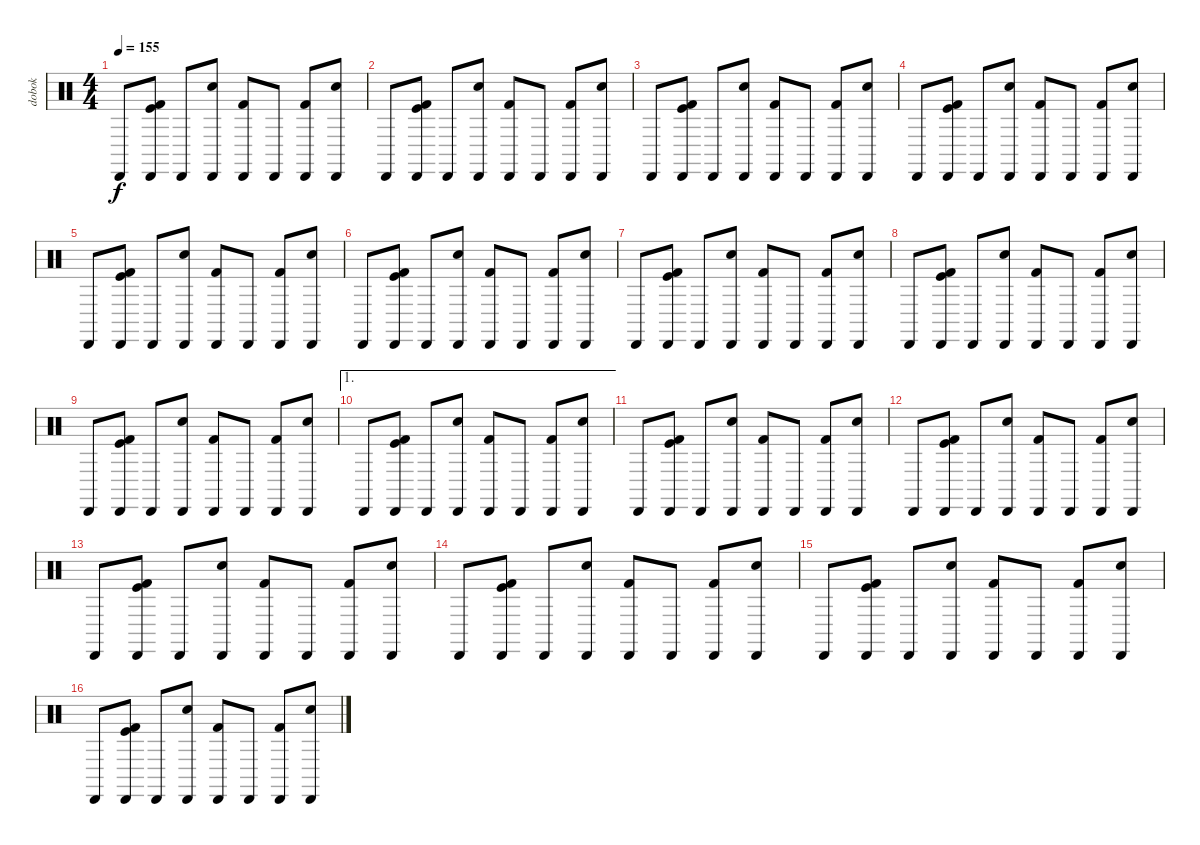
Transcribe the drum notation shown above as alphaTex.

\track ("dobok" "dobok") {instrument percussion}
\staff {score}
\articulation defaults
\ts (4 4)
\tempo 155
\clef neutral
\ks c "Cabasa (hit)".8{dy f}
("Cabasa (hit)" "Kick (hit) 2" "Kick (hit)").8 "Cabasa (hit)".8 ("Cabasa (hit)" "Electric Snare (hit)").8 ("Cabasa (hit)" "Kick (hit) 2").8 "Cabasa (hit)".8 ("Cabasa (hit)" "Kick (hit) 2").8 ("Cabasa (hit)" "Electric Snare (hit)").8 |
"Cabasa (hit)".8 ("Cabasa (hit)" "Kick (hit) 2" "Kick (hit)").8 "Cabasa (hit)".8 ("Cabasa (hit)" "Electric Snare (hit)").8 ("Cabasa (hit)" "Kick (hit) 2").8 "Cabasa (hit)".8 ("Cabasa (hit)" "Kick (hit) 2").8 ("Cabasa (hit)" "Electric Snare (hit)").8 |
"Cabasa (hit)".8 ("Cabasa (hit)" "Kick (hit) 2" "Kick (hit)").8 "Cabasa (hit)".8 ("Cabasa (hit)" "Electric Snare (hit)").8 ("Cabasa (hit)" "Kick (hit) 2").8 "Cabasa (hit)".8 ("Cabasa (hit)" "Kick (hit) 2").8 ("Cabasa (hit)" "Electric Snare (hit)").8 |
"Cabasa (hit)".8 ("Cabasa (hit)" "Kick (hit) 2" "Kick (hit)").8 "Cabasa (hit)".8 ("Cabasa (hit)" "Electric Snare (hit)").8 ("Cabasa (hit)" "Kick (hit) 2").8 "Cabasa (hit)".8 ("Cabasa (hit)" "Kick (hit) 2").8 ("Cabasa (hit)" "Electric Snare (hit)").8 |
"Cabasa (hit)".8 ("Cabasa (hit)" "Kick (hit) 2" "Kick (hit)").8 "Cabasa (hit)".8 ("Cabasa (hit)" "Electric Snare (hit)").8 ("Cabasa (hit)" "Kick (hit) 2").8 "Cabasa (hit)".8 ("Cabasa (hit)" "Kick (hit) 2").8 ("Cabasa (hit)" "Electric Snare (hit)").8 |
"Cabasa (hit)".8 ("Cabasa (hit)" "Kick (hit) 2" "Kick (hit)").8 "Cabasa (hit)".8 ("Cabasa (hit)" "Electric Snare (hit)").8 ("Cabasa (hit)" "Kick (hit) 2").8 "Cabasa (hit)".8 ("Cabasa (hit)" "Kick (hit) 2").8 ("Cabasa (hit)" "Electric Snare (hit)").8 |
"Cabasa (hit)".8 ("Cabasa (hit)" "Kick (hit) 2" "Kick (hit)").8 "Cabasa (hit)".8 ("Cabasa (hit)" "Electric Snare (hit)").8 ("Cabasa (hit)" "Kick (hit) 2").8 "Cabasa (hit)".8 ("Cabasa (hit)" "Kick (hit) 2").8 ("Cabasa (hit)" "Electric Snare (hit)").8 |
"Cabasa (hit)".8 ("Cabasa (hit)" "Kick (hit) 2" "Kick (hit)").8 "Cabasa (hit)".8 ("Cabasa (hit)" "Electric Snare (hit)").8 ("Cabasa (hit)" "Kick (hit) 2").8 "Cabasa (hit)".8 ("Cabasa (hit)" "Kick (hit) 2").8 ("Cabasa (hit)" "Electric Snare (hit)").8 |
"Cabasa (hit)".8 ("Cabasa (hit)" "Kick (hit) 2" "Kick (hit)").8 "Cabasa (hit)".8 ("Cabasa (hit)" "Electric Snare (hit)").8 ("Cabasa (hit)" "Kick (hit) 2").8 "Cabasa (hit)".8 ("Cabasa (hit)" "Kick (hit) 2").8 ("Cabasa (hit)" "Electric Snare (hit)").8 |
\ae 1 "Cabasa (hit)".8
("Cabasa (hit)" "Kick (hit) 2" "Kick (hit)").8 "Cabasa (hit)".8 ("Cabasa (hit)" "Electric Snare (hit)").8 ("Cabasa (hit)" "Kick (hit) 2").8 "Cabasa (hit)".8 ("Cabasa (hit)" "Kick (hit) 2").8 ("Cabasa (hit)" "Electric Snare (hit)").8 |
"Cabasa (hit)".8 ("Cabasa (hit)" "Kick (hit) 2" "Kick (hit)").8 "Cabasa (hit)".8 ("Cabasa (hit)" "Electric Snare (hit)").8 ("Cabasa (hit)" "Kick (hit) 2").8 "Cabasa (hit)".8 ("Cabasa (hit)" "Kick (hit) 2").8 ("Cabasa (hit)" "Electric Snare (hit)").8 |
"Cabasa (hit)".8 ("Cabasa (hit)" "Kick (hit) 2" "Kick (hit)").8 "Cabasa (hit)".8 ("Cabasa (hit)" "Electric Snare (hit)").8 ("Cabasa (hit)" "Kick (hit) 2").8 "Cabasa (hit)".8 ("Cabasa (hit)" "Kick (hit) 2").8 ("Cabasa (hit)" "Electric Snare (hit)").8 |
"Cabasa (hit)".8 ("Cabasa (hit)" "Kick (hit) 2" "Kick (hit)").8 "Cabasa (hit)".8 ("Cabasa (hit)" "Electric Snare (hit)").8 ("Cabasa (hit)" "Kick (hit) 2").8 "Cabasa (hit)".8 ("Cabasa (hit)" "Kick (hit) 2").8 ("Cabasa (hit)" "Electric Snare (hit)").8 |
"Cabasa (hit)".8 ("Cabasa (hit)" "Kick (hit) 2" "Kick (hit)").8 "Cabasa (hit)".8 ("Cabasa (hit)" "Electric Snare (hit)").8 ("Cabasa (hit)" "Kick (hit) 2").8 "Cabasa (hit)".8 ("Cabasa (hit)" "Kick (hit) 2").8 ("Cabasa (hit)" "Electric Snare (hit)").8 |
"Cabasa (hit)".8 ("Cabasa (hit)" "Kick (hit) 2" "Kick (hit)").8 "Cabasa (hit)".8 ("Cabasa (hit)" "Electric Snare (hit)").8 ("Cabasa (hit)" "Kick (hit) 2").8 "Cabasa (hit)".8 ("Cabasa (hit)" "Kick (hit) 2").8 ("Cabasa (hit)" "Electric Snare (hit)").8 |
"Cabasa (hit)".8 ("Cabasa (hit)" "Kick (hit) 2" "Kick (hit)").8 "Cabasa (hit)".8 ("Cabasa (hit)" "Electric Snare (hit)").8 ("Cabasa (hit)" "Kick (hit) 2").8 "Cabasa (hit)".8 ("Cabasa (hit)" "Kick (hit) 2").8 ("Cabasa (hit)" "Electric Snare (hit)").8
